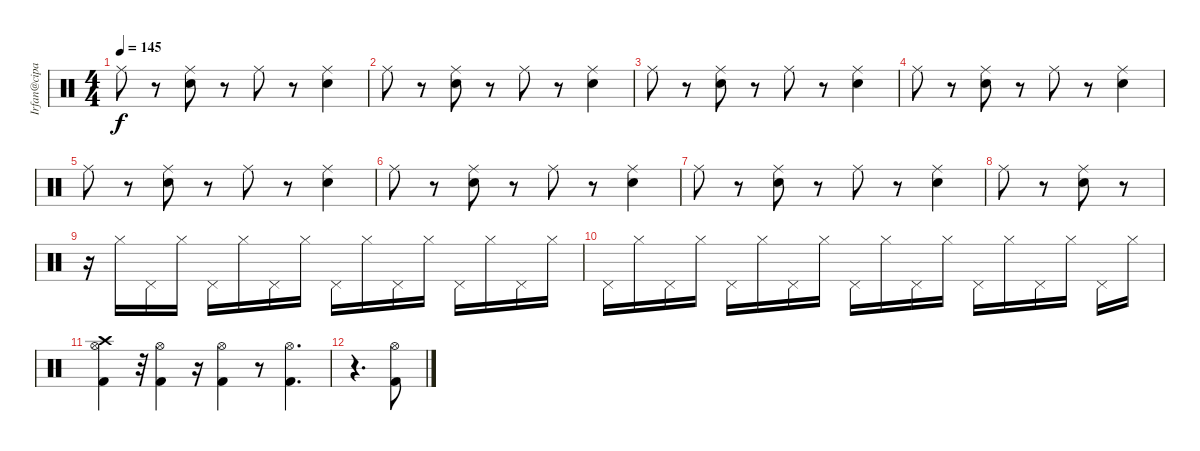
\track ("Irfan@cipan 2" "Irfan@cipa") {instrument percussion}
\staff {score}
\articulation defaults
\ts (4 4)
\tempo 145
\clef neutral
\ks c "Ride (middle)".8{dy f}
r.8 ("Ride (middle)" "Electric Snare (hit)").8 r.8 "Ride (middle)".8 r.8 ("Ride (middle)" "Electric Snare (hit)").4 |
"Ride (middle)".8 r.8 ("Ride (middle)" "Electric Snare (hit)").8 r.8 "Ride (middle)".8 r.8 ("Ride (middle)" "Electric Snare (hit)").4 |
"Ride (middle)".8 r.8 ("Ride (middle)" "Electric Snare (hit)").8 r.8 "Ride (middle)".8 r.8 ("Ride (middle)" "Electric Snare (hit)").4 |
"Ride (middle)".8 r.8 ("Ride (middle)" "Electric Snare (hit)").8 r.8 "Ride (middle)".8 r.8 ("Ride (middle)" "Electric Snare (hit)").4 |
"Ride (middle)".8 r.8 ("Ride (middle)" "Electric Snare (hit)").8 r.8 "Ride (middle)".8 r.8 ("Ride (middle)" "Electric Snare (hit)").4 |
"Ride (middle)".8 r.8 ("Ride (middle)" "Electric Snare (hit)").8 r.8 "Ride (middle)".8 r.8 ("Ride (middle)" "Electric Snare (hit)").4 |
"Ride (middle)".8 r.8 ("Ride (middle)" "Electric Snare (hit)").8 r.8 "Ride (middle)".8 r.8 ("Ride (middle)" "Electric Snare (hit)").4 |
"Ride (middle)".8 r.8 ("Ride (middle)" "Electric Snare (hit)").8 r.8 |
r.16 "Hi-Hat (closed)".16 "Pedal Hi-Hat (hit)".16 "Hi-Hat (closed)".16 "Pedal Hi-Hat (hit)".16 "Hi-Hat (closed)".16 "Pedal Hi-Hat (hit)".16 "Hi-Hat (closed)".16 "Pedal Hi-Hat (hit)".16 "Hi-Hat (closed)".16 "Pedal Hi-Hat (hit)".16 "Hi-Hat (closed)".16 "Pedal Hi-Hat (hit)".16 "Hi-Hat (closed)".16 "Pedal Hi-Hat (hit)".16 "Hi-Hat (closed)".16 |
"Pedal Hi-Hat (hit)".16 "Hi-Hat (closed)".16 "Pedal Hi-Hat (hit)".16 "Hi-Hat (closed)".16 "Pedal Hi-Hat (hit)".16 "Hi-Hat (closed)".16 "Pedal Hi-Hat (hit)".16 "Hi-Hat (closed)".16 "Pedal Hi-Hat (hit)".16 "Hi-Hat (closed)".16 "Pedal Hi-Hat (hit)".16 "Hi-Hat (closed)".16 "Pedal Hi-Hat (hit)".16 "Hi-Hat (closed)".16 "Pedal Hi-Hat (hit)".16 "Hi-Hat (closed)".16 "Pedal Hi-Hat (hit)".16 "Hi-Hat (closed)".16 |
("Crash high (hit)" "Hi-Hat (open)" "Kick (hit) 2").4 r.32 ("Hi-Hat (open)" "Kick (hit) 2").4 r.16 ("Hi-Hat (open)" "Kick (hit) 2").4 r.8 ("Hi-Hat (open)" "Kick (hit) 2").4{d} |
r.4{d} ("Hi-Hat (open)" "Kick (hit) 2").8
